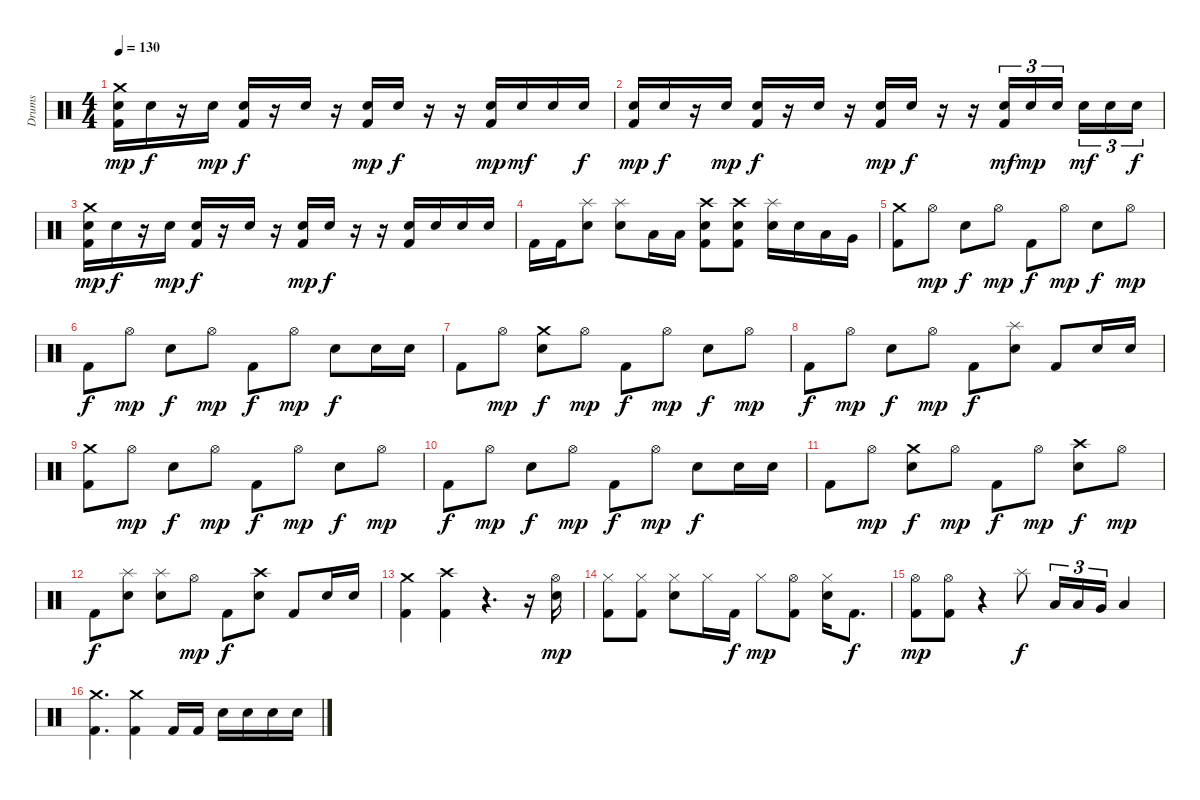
\track ("Drums" "Drums") {instrument percussion}
\staff {score}
\articulation defaults
\ts (4 4)
\tempo 130
\clef neutral
\ks c
("Crash medium (hit)" "Snare (hit) 2" "Kick (hit) 2").16{dy mp} "Snare (hit) 2".16{dy f} r.16 "Snare (hit) 2".16{dy mp} ("Snare (hit) 2" "Kick (hit) 2").16{dy f} r.16 "Snare (hit) 2".16 r.16 ("Snare (hit) 2" "Kick (hit) 2").16{dy mp} "Snare (hit) 2".16{dy f} r.16 r.16 ("Snare (hit) 2" "Kick (hit) 2").16{dy mp} "Snare (hit) 2".16{dy mf} "Snare (hit) 2".16 "Snare (hit) 2".16{dy f} |
("Snare (hit) 2" "Kick (hit) 2").16{dy mp} "Snare (hit) 2".16{dy f} r.16 "Snare (hit) 2".16{dy mp} ("Snare (hit) 2" "Kick (hit) 2").16{dy f} r.16 "Snare (hit) 2".16 r.16 ("Snare (hit) 2" "Kick (hit) 2").16{dy mp} "Snare (hit) 2".16{dy f} r.16 r.16 ("Snare (hit) 2" "Kick (hit) 2").16{tu (3 2) dy mf} "Snare (hit) 2".16{tu (3 2) dy mp} "Snare (hit) 2".16{tu (3 2) beam splitsecondary} "Snare (hit) 2".16{tu (3 2) dy mf} "Snare (hit) 2".16{tu (3 2)} "Snare (hit) 2".16{tu (3 2) dy f} |
("Crash medium (hit)" "Snare (hit) 2" "Kick (hit) 2").16{dy mp} "Snare (hit) 2".16{dy f} r.16 "Snare (hit) 2".16{dy mp} ("Snare (hit) 2" "Kick (hit) 2").16{dy f} r.16 "Snare (hit) 2".16 r.16 ("Snare (hit) 2" "Kick (hit) 2").16{dy mp} "Snare (hit) 2".16{dy f} r.16 r.16 ("Snare (hit) 2" "Kick (hit) 2").16 "Snare (hit) 2".16 "Snare (hit) 2".16 "Snare (hit) 2".16 |
"Kick (hit) 2".16 "Kick (hit) 2".16 ("Splash (hit)" "Snare (hit) 2").8 ("Splash (hit)" "Snare (hit) 2").8 "Low Tom (hit)".16 "Low Tom (hit)".16 ("Crash high (hit)" "Snare (hit) 2" "Kick (hit) 2").8 ("Crash high (hit)" "Snare (hit) 2" "Kick (hit) 2").8 ("Splash (hit)" "Snare (hit) 2").16 "Snare (hit) 2".16 "Low Tom (hit)".16 "Very Low Tom (hit)".16 |
("Crash medium (hit)" "Kick (hit) 2").8 "Hi-Hat (open)".8{dy mp} "Snare (hit) 2".8{dy f} "Hi-Hat (open)".8{dy mp} "Kick (hit) 2".8{dy f} "Hi-Hat (open)".8{dy mp} "Snare (hit) 2".8{dy f} "Hi-Hat (open)".8{dy mp} |
"Kick (hit) 2".8{dy f} "Hi-Hat (open)".8{dy mp} "Snare (hit) 2".8{dy f} "Hi-Hat (open)".8{dy mp} "Kick (hit) 2".8{dy f} "Hi-Hat (open)".8{dy mp} "Snare (hit) 2".8{dy f} "Snare (hit) 2".16 "Snare (hit) 2".16 |
"Kick (hit) 2".8 "Hi-Hat (open)".8{dy mp} ("Crash medium (hit)" "Snare (hit) 2").8{dy f} "Hi-Hat (open)".8{dy mp} "Kick (hit) 2".8{dy f} "Hi-Hat (open)".8{dy mp} "Snare (hit) 2".8{dy f} "Hi-Hat (open)".8{dy mp} |
"Kick (hit) 2".8{dy f} "Hi-Hat (open)".8{dy mp} "Snare (hit) 2".8{dy f} "Hi-Hat (open)".8{dy mp} "Kick (hit) 2".8{dy f} ("Splash (hit)" "Snare (hit) 2").8 "Kick (hit) 2".8 "Snare (hit) 2".16 "Snare (hit) 2".16 |
("Crash medium (hit)" "Kick (hit) 2").8 "Hi-Hat (open)".8{dy mp} "Snare (hit) 2".8{dy f} "Hi-Hat (open)".8{dy mp} "Kick (hit) 2".8{dy f} "Hi-Hat (open)".8{dy mp} "Snare (hit) 2".8{dy f} "Hi-Hat (open)".8{dy mp} |
"Kick (hit) 2".8{dy f} "Hi-Hat (open)".8{dy mp} "Snare (hit) 2".8{dy f} "Hi-Hat (open)".8{dy mp} "Kick (hit) 2".8{dy f} "Hi-Hat (open)".8{dy mp} "Snare (hit) 2".8{dy f} "Snare (hit) 2".16 "Snare (hit) 2".16 |
"Kick (hit) 2".8 "Hi-Hat (open)".8{dy mp} ("Crash medium (hit)" "Snare (hit) 2").8{dy f} "Hi-Hat (open)".8{dy mp} "Kick (hit) 2".8{dy f} "Hi-Hat (open)".8{dy mp} ("Crash high (hit)" "Snare (hit) 2").8{dy f} "Hi-Hat (open)".8{dy mp} |
"Kick (hit) 2".8{dy f} ("Splash (hit)" "Snare (hit) 2").8 ("Splash (hit)" "Snare (hit) 2").8 "Hi-Hat (open)".8{dy mp} "Kick (hit) 2".8{dy f} ("Crash high (hit)" "Snare (hit) 2").8 "Kick (hit) 2".8 "Snare (hit) 2".16 "Snare (hit) 2".16 |
("Crash medium (hit)" "Kick (hit) 2").4 ("Crash high (hit)" "Kick (hit) 2").4 r.4{d} r.16 ("Hi-Hat (open)" "Snare (hit) 2").16{dy mp} |
("Hi-Hat (closed)" "Kick (hit) 2").8 ("Hi-Hat (closed)" "Kick (hit) 2").8 ("Hi-Hat (closed)" "Snare (hit) 2").8 "Hi-Hat (closed)".16 "Kick (hit) 2".16{dy f} "Hi-Hat (closed)".8{dy mp} ("Hi-Hat (open)" "Kick (hit) 2").8 ("Hi-Hat (closed)" "Snare (hit) 2").16 "Kick (hit) 2".8{d dy f} |
("Hi-Hat (open)" "Kick (hit) 2").8{dy mp} ("Hi-Hat (open)" "Kick (hit) 2").8 r.4 "Splash (hit)".8{dy f} "Low Tom (hit)".16{tu (3 2)} "Low Tom (hit)".16{tu (3 2)} "Very Low Tom (hit)".16{tu (3 2)} "Low Floor Tom (hit)".4 |
("Crash medium (hit)" "Kick (hit) 2").4{d} ("Crash medium (hit)" "Kick (hit) 2").4 "Kick (hit) 2".16 "Kick (hit) 2".16 "Snare (hit) 2".16 "Snare (hit) 2".16 "Snare (hit) 2".16 "Snare (hit) 2".16
